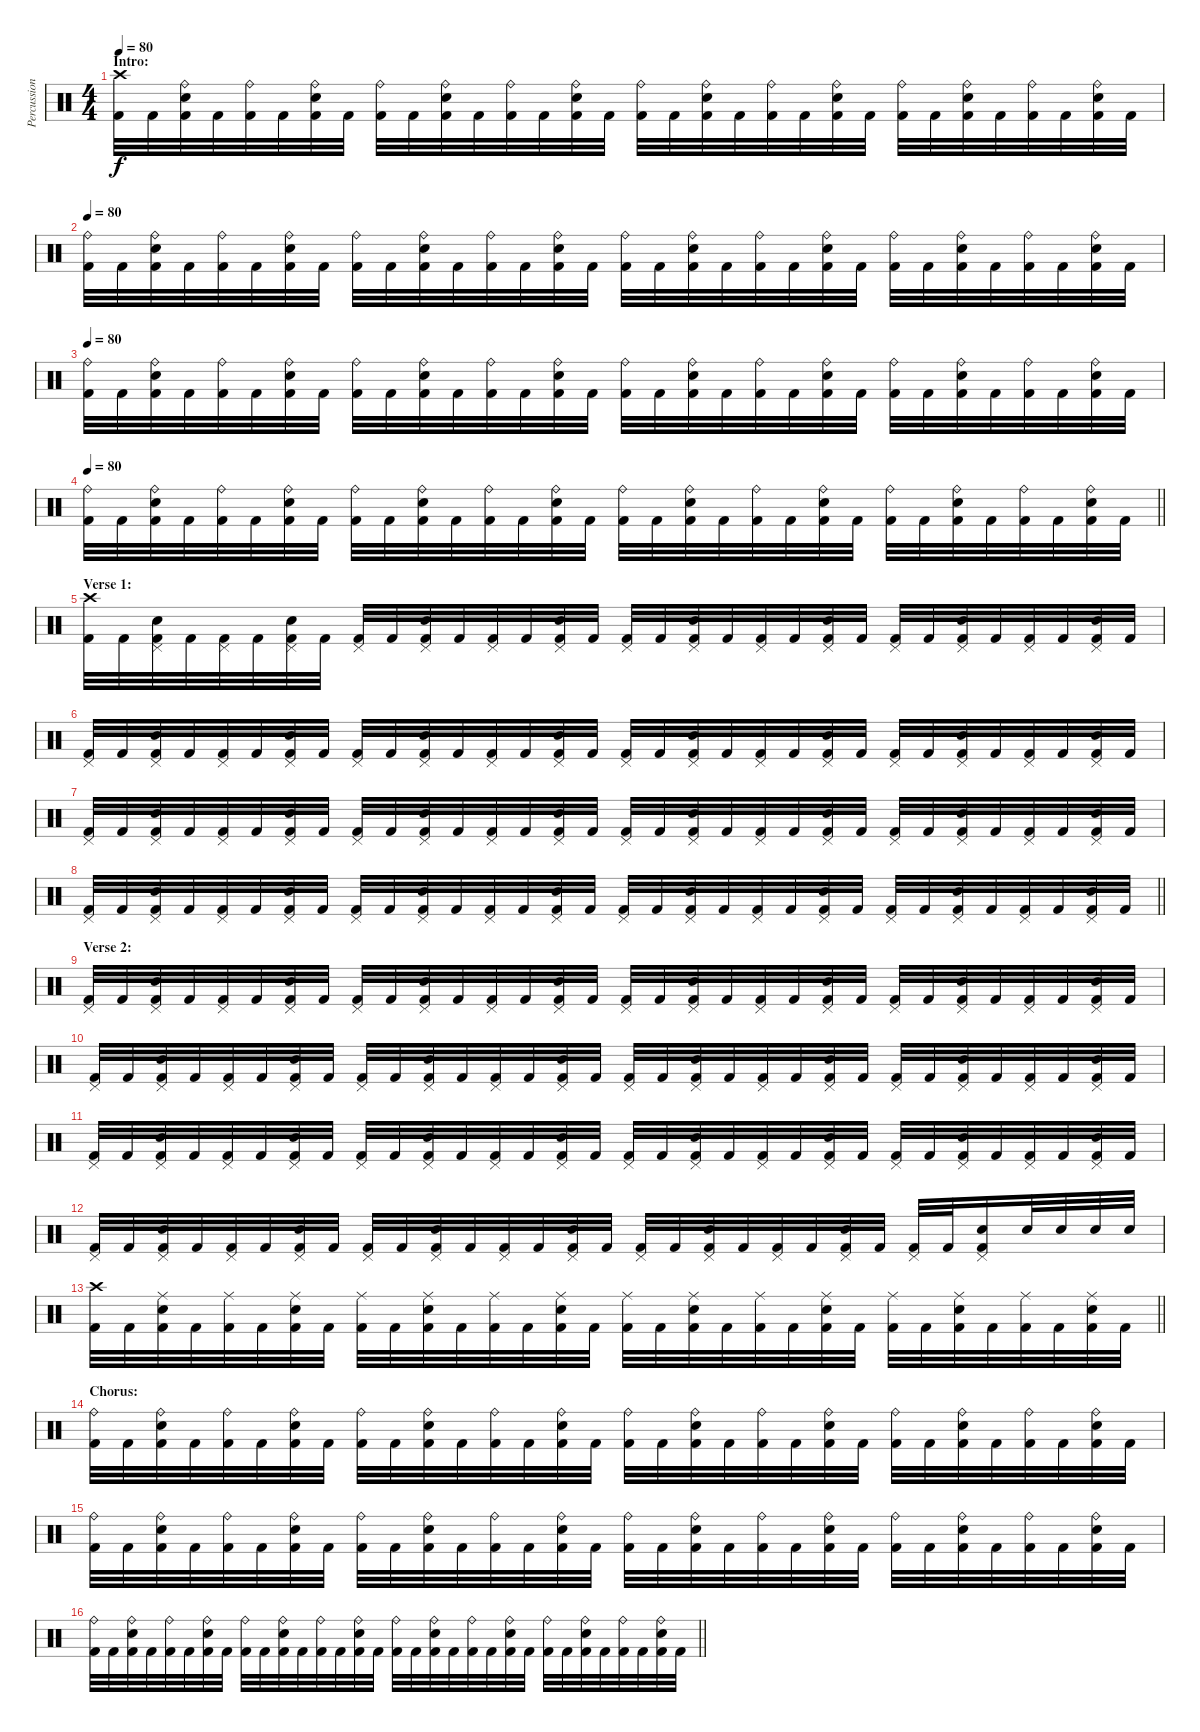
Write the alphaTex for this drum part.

\track ("Percussion" "Percussion") {instrument percussion}
\staff {score}
\articulation defaults
\ts (4 4)
\section ("" "Intro:")
\tempo 80
\clef neutral
\ks c
("Crash high (hit)" "Kick (hit) 2").32{dy f} "Kick (hit) 2".32 ("Ride (bell)" "Electric Snare (hit)" "Kick (hit) 2").32 "Kick (hit) 2".32 ("Ride (bell)" "Kick (hit) 2").32 "Kick (hit) 2".32 ("Ride (bell)" "Electric Snare (hit)" "Kick (hit) 2").32 "Kick (hit) 2".32 ("Ride (bell)" "Kick (hit) 2").32 "Kick (hit) 2".32 ("Ride (bell)" "Electric Snare (hit)" "Kick (hit) 2").32 "Kick (hit) 2".32 ("Ride (bell)" "Kick (hit) 2").32 "Kick (hit) 2".32 ("Ride (bell)" "Electric Snare (hit)" "Kick (hit) 2").32 "Kick (hit) 2".32 ("Ride (bell)" "Kick (hit) 2").32 "Kick (hit) 2".32 ("Ride (bell)" "Electric Snare (hit)" "Kick (hit) 2").32 "Kick (hit) 2".32 ("Ride (bell)" "Kick (hit) 2").32 "Kick (hit) 2".32 ("Ride (bell)" "Electric Snare (hit)" "Kick (hit) 2").32 "Kick (hit) 2".32 ("Ride (bell)" "Kick (hit) 2").32 "Kick (hit) 2".32 ("Ride (bell)" "Electric Snare (hit)" "Kick (hit) 2").32 "Kick (hit) 2".32 ("Ride (bell)" "Kick (hit) 2").32 "Kick (hit) 2".32 ("Ride (bell)" "Electric Snare (hit)" "Kick (hit) 2").32 "Kick (hit) 2".32 |
\tempo 80
("Ride (bell)" "Kick (hit) 2").32 "Kick (hit) 2".32 ("Ride (bell)" "Electric Snare (hit)" "Kick (hit) 2").32 "Kick (hit) 2".32 ("Ride (bell)" "Kick (hit) 2").32 "Kick (hit) 2".32 ("Ride (bell)" "Electric Snare (hit)" "Kick (hit) 2").32 "Kick (hit) 2".32 ("Ride (bell)" "Kick (hit) 2").32 "Kick (hit) 2".32 ("Ride (bell)" "Electric Snare (hit)" "Kick (hit) 2").32 "Kick (hit) 2".32 ("Ride (bell)" "Kick (hit) 2").32 "Kick (hit) 2".32 ("Ride (bell)" "Electric Snare (hit)" "Kick (hit) 2").32 "Kick (hit) 2".32 ("Ride (bell)" "Kick (hit) 2").32 "Kick (hit) 2".32 ("Ride (bell)" "Electric Snare (hit)" "Kick (hit) 2").32 "Kick (hit) 2".32 ("Ride (bell)" "Kick (hit) 2").32 "Kick (hit) 2".32 ("Ride (bell)" "Electric Snare (hit)" "Kick (hit) 2").32 "Kick (hit) 2".32 ("Ride (bell)" "Kick (hit) 2").32 "Kick (hit) 2".32 ("Ride (bell)" "Electric Snare (hit)" "Kick (hit) 2").32 "Kick (hit) 2".32 ("Ride (bell)" "Kick (hit) 2").32 "Kick (hit) 2".32 ("Ride (bell)" "Electric Snare (hit)" "Kick (hit) 2").32 "Kick (hit) 2".32 |
\tempo 80
("Ride (bell)" "Kick (hit) 2").32 "Kick (hit) 2".32 ("Ride (bell)" "Electric Snare (hit)" "Kick (hit) 2").32 "Kick (hit) 2".32 ("Ride (bell)" "Kick (hit) 2").32 "Kick (hit) 2".32 ("Ride (bell)" "Electric Snare (hit)" "Kick (hit) 2").32 "Kick (hit) 2".32 ("Ride (bell)" "Kick (hit) 2").32 "Kick (hit) 2".32 ("Ride (bell)" "Electric Snare (hit)" "Kick (hit) 2").32 "Kick (hit) 2".32 ("Ride (bell)" "Kick (hit) 2").32 "Kick (hit) 2".32 ("Ride (bell)" "Electric Snare (hit)" "Kick (hit) 2").32 "Kick (hit) 2".32 ("Ride (bell)" "Kick (hit) 2").32 "Kick (hit) 2".32 ("Ride (bell)" "Electric Snare (hit)" "Kick (hit) 2").32 "Kick (hit) 2".32 ("Ride (bell)" "Kick (hit) 2").32 "Kick (hit) 2".32 ("Ride (bell)" "Electric Snare (hit)" "Kick (hit) 2").32 "Kick (hit) 2".32 ("Ride (bell)" "Kick (hit) 2").32 "Kick (hit) 2".32 ("Ride (bell)" "Electric Snare (hit)" "Kick (hit) 2").32 "Kick (hit) 2".32 ("Ride (bell)" "Kick (hit) 2").32 "Kick (hit) 2".32 ("Ride (bell)" "Electric Snare (hit)" "Kick (hit) 2").32 "Kick (hit) 2".32 |
\tempo 80
\barLineRight lightlight
("Ride (bell)" "Kick (hit) 2").32 "Kick (hit) 2".32 ("Ride (bell)" "Electric Snare (hit)" "Kick (hit) 2").32 "Kick (hit) 2".32 ("Ride (bell)" "Kick (hit) 2").32 "Kick (hit) 2".32 ("Ride (bell)" "Electric Snare (hit)" "Kick (hit) 2").32 "Kick (hit) 2".32 ("Ride (bell)" "Kick (hit) 2").32 "Kick (hit) 2".32 ("Ride (bell)" "Electric Snare (hit)" "Kick (hit) 2").32 "Kick (hit) 2".32 ("Ride (bell)" "Kick (hit) 2").32 "Kick (hit) 2".32 ("Ride (bell)" "Electric Snare (hit)" "Kick (hit) 2").32 "Kick (hit) 2".32 ("Ride (bell)" "Kick (hit) 2").32 "Kick (hit) 2".32 ("Ride (bell)" "Electric Snare (hit)" "Kick (hit) 2").32 "Kick (hit) 2".32 ("Ride (bell)" "Kick (hit) 2").32 "Kick (hit) 2".32 ("Ride (bell)" "Electric Snare (hit)" "Kick (hit) 2").32 "Kick (hit) 2".32 ("Ride (bell)" "Kick (hit) 2").32 "Kick (hit) 2".32 ("Ride (bell)" "Electric Snare (hit)" "Kick (hit) 2").32 "Kick (hit) 2".32 ("Ride (bell)" "Kick (hit) 2").32 "Kick (hit) 2".32 ("Ride (bell)" "Electric Snare (hit)" "Kick (hit) 2").32 "Kick (hit) 2".32 |
\section ("" "Verse 1:")
("Crash high (hit)" "Kick (hit) 2").32 "Kick (hit) 2".32 ("Pedal Hi-Hat (hit)" "Electric Snare (hit)" "Kick (hit) 2").32 "Kick (hit) 2".32 ("Pedal Hi-Hat (hit)" "Kick (hit) 2").32 "Kick (hit) 2".32 ("Pedal Hi-Hat (hit)" "Electric Snare (hit)" "Kick (hit) 2").32 "Kick (hit) 2".32 ("Pedal Hi-Hat (hit)" "Kick (hit) 2").32 "Kick (hit) 2".32 ("Pedal Hi-Hat (hit)" "Electric Snare (hit)" "Kick (hit) 2").32 "Kick (hit) 2".32 ("Pedal Hi-Hat (hit)" "Kick (hit) 2").32 "Kick (hit) 2".32 ("Pedal Hi-Hat (hit)" "Electric Snare (hit)" "Kick (hit) 2").32 "Kick (hit) 2".32 ("Pedal Hi-Hat (hit)" "Kick (hit) 2").32 "Kick (hit) 2".32 ("Pedal Hi-Hat (hit)" "Electric Snare (hit)" "Kick (hit) 2").32 "Kick (hit) 2".32 ("Pedal Hi-Hat (hit)" "Kick (hit) 2").32 "Kick (hit) 2".32 ("Pedal Hi-Hat (hit)" "Electric Snare (hit)" "Kick (hit) 2").32 "Kick (hit) 2".32 ("Pedal Hi-Hat (hit)" "Kick (hit) 2").32 "Kick (hit) 2".32 ("Pedal Hi-Hat (hit)" "Electric Snare (hit)" "Kick (hit) 2").32 "Kick (hit) 2".32 ("Pedal Hi-Hat (hit)" "Kick (hit) 2").32 "Kick (hit) 2".32 ("Pedal Hi-Hat (hit)" "Electric Snare (hit)" "Kick (hit) 2").32 "Kick (hit) 2".32 |
("Pedal Hi-Hat (hit)" "Kick (hit) 2").32 "Kick (hit) 2".32 ("Pedal Hi-Hat (hit)" "Electric Snare (hit)" "Kick (hit) 2").32 "Kick (hit) 2".32 ("Pedal Hi-Hat (hit)" "Kick (hit) 2").32 "Kick (hit) 2".32 ("Pedal Hi-Hat (hit)" "Electric Snare (hit)" "Kick (hit) 2").32 "Kick (hit) 2".32 ("Pedal Hi-Hat (hit)" "Kick (hit) 2").32 "Kick (hit) 2".32 ("Pedal Hi-Hat (hit)" "Electric Snare (hit)" "Kick (hit) 2").32 "Kick (hit) 2".32 ("Pedal Hi-Hat (hit)" "Kick (hit) 2").32 "Kick (hit) 2".32 ("Pedal Hi-Hat (hit)" "Electric Snare (hit)" "Kick (hit) 2").32 "Kick (hit) 2".32 ("Pedal Hi-Hat (hit)" "Kick (hit) 2").32 "Kick (hit) 2".32 ("Pedal Hi-Hat (hit)" "Electric Snare (hit)" "Kick (hit) 2").32 "Kick (hit) 2".32 ("Pedal Hi-Hat (hit)" "Kick (hit) 2").32 "Kick (hit) 2".32 ("Pedal Hi-Hat (hit)" "Electric Snare (hit)" "Kick (hit) 2").32 "Kick (hit) 2".32 ("Pedal Hi-Hat (hit)" "Kick (hit) 2").32 "Kick (hit) 2".32 ("Pedal Hi-Hat (hit)" "Electric Snare (hit)" "Kick (hit) 2").32 "Kick (hit) 2".32 ("Pedal Hi-Hat (hit)" "Kick (hit) 2").32 "Kick (hit) 2".32 ("Pedal Hi-Hat (hit)" "Electric Snare (hit)" "Kick (hit) 2").32 "Kick (hit) 2".32 |
("Pedal Hi-Hat (hit)" "Kick (hit) 2").32 "Kick (hit) 2".32 ("Pedal Hi-Hat (hit)" "Electric Snare (hit)" "Kick (hit) 2").32 "Kick (hit) 2".32 ("Pedal Hi-Hat (hit)" "Kick (hit) 2").32 "Kick (hit) 2".32 ("Pedal Hi-Hat (hit)" "Electric Snare (hit)" "Kick (hit) 2").32 "Kick (hit) 2".32 ("Pedal Hi-Hat (hit)" "Kick (hit) 2").32 "Kick (hit) 2".32 ("Pedal Hi-Hat (hit)" "Electric Snare (hit)" "Kick (hit) 2").32 "Kick (hit) 2".32 ("Pedal Hi-Hat (hit)" "Kick (hit) 2").32 "Kick (hit) 2".32 ("Pedal Hi-Hat (hit)" "Electric Snare (hit)" "Kick (hit) 2").32 "Kick (hit) 2".32 ("Pedal Hi-Hat (hit)" "Kick (hit) 2").32 "Kick (hit) 2".32 ("Pedal Hi-Hat (hit)" "Electric Snare (hit)" "Kick (hit) 2").32 "Kick (hit) 2".32 ("Pedal Hi-Hat (hit)" "Kick (hit) 2").32 "Kick (hit) 2".32 ("Pedal Hi-Hat (hit)" "Electric Snare (hit)" "Kick (hit) 2").32 "Kick (hit) 2".32 ("Pedal Hi-Hat (hit)" "Kick (hit) 2").32 "Kick (hit) 2".32 ("Pedal Hi-Hat (hit)" "Electric Snare (hit)" "Kick (hit) 2").32 "Kick (hit) 2".32 ("Pedal Hi-Hat (hit)" "Kick (hit) 2").32 "Kick (hit) 2".32 ("Pedal Hi-Hat (hit)" "Electric Snare (hit)" "Kick (hit) 2").32 "Kick (hit) 2".32 |
\barLineRight lightlight
("Pedal Hi-Hat (hit)" "Kick (hit) 2").32 "Kick (hit) 2".32 ("Pedal Hi-Hat (hit)" "Electric Snare (hit)" "Kick (hit) 2").32 "Kick (hit) 2".32 ("Pedal Hi-Hat (hit)" "Kick (hit) 2").32 "Kick (hit) 2".32 ("Pedal Hi-Hat (hit)" "Electric Snare (hit)" "Kick (hit) 2").32 "Kick (hit) 2".32 ("Pedal Hi-Hat (hit)" "Kick (hit) 2").32 "Kick (hit) 2".32 ("Pedal Hi-Hat (hit)" "Electric Snare (hit)" "Kick (hit) 2").32 "Kick (hit) 2".32 ("Pedal Hi-Hat (hit)" "Kick (hit) 2").32 "Kick (hit) 2".32 ("Pedal Hi-Hat (hit)" "Electric Snare (hit)" "Kick (hit) 2").32 "Kick (hit) 2".32 ("Pedal Hi-Hat (hit)" "Kick (hit) 2").32 "Kick (hit) 2".32 ("Pedal Hi-Hat (hit)" "Electric Snare (hit)" "Kick (hit) 2").32 "Kick (hit) 2".32 ("Pedal Hi-Hat (hit)" "Kick (hit) 2").32 "Kick (hit) 2".32 ("Pedal Hi-Hat (hit)" "Electric Snare (hit)" "Kick (hit) 2").32 "Kick (hit) 2".32 ("Pedal Hi-Hat (hit)" "Kick (hit) 2").32 "Kick (hit) 2".32 ("Pedal Hi-Hat (hit)" "Electric Snare (hit)" "Kick (hit) 2").32 "Kick (hit) 2".32 ("Pedal Hi-Hat (hit)" "Kick (hit) 2").32 "Kick (hit) 2".32 ("Pedal Hi-Hat (hit)" "Electric Snare (hit)" "Kick (hit) 2").32 "Kick (hit) 2".32 |
\section ("" "Verse 2:")
("Pedal Hi-Hat (hit)" "Kick (hit) 2").32 "Kick (hit) 2".32 ("Pedal Hi-Hat (hit)" "Electric Snare (hit)" "Kick (hit) 2").32 "Kick (hit) 2".32 ("Pedal Hi-Hat (hit)" "Kick (hit) 2").32 "Kick (hit) 2".32 ("Pedal Hi-Hat (hit)" "Electric Snare (hit)" "Kick (hit) 2").32 "Kick (hit) 2".32 ("Pedal Hi-Hat (hit)" "Kick (hit) 2").32 "Kick (hit) 2".32 ("Pedal Hi-Hat (hit)" "Electric Snare (hit)" "Kick (hit) 2").32 "Kick (hit) 2".32 ("Pedal Hi-Hat (hit)" "Kick (hit) 2").32 "Kick (hit) 2".32 ("Pedal Hi-Hat (hit)" "Electric Snare (hit)" "Kick (hit) 2").32 "Kick (hit) 2".32 ("Pedal Hi-Hat (hit)" "Kick (hit) 2").32 "Kick (hit) 2".32 ("Pedal Hi-Hat (hit)" "Electric Snare (hit)" "Kick (hit) 2").32 "Kick (hit) 2".32 ("Pedal Hi-Hat (hit)" "Kick (hit) 2").32 "Kick (hit) 2".32 ("Pedal Hi-Hat (hit)" "Electric Snare (hit)" "Kick (hit) 2").32 "Kick (hit) 2".32 ("Pedal Hi-Hat (hit)" "Kick (hit) 2").32 "Kick (hit) 2".32 ("Pedal Hi-Hat (hit)" "Electric Snare (hit)" "Kick (hit) 2").32 "Kick (hit) 2".32 ("Pedal Hi-Hat (hit)" "Kick (hit) 2").32 "Kick (hit) 2".32 ("Pedal Hi-Hat (hit)" "Electric Snare (hit)" "Kick (hit) 2").32 "Kick (hit) 2".32 |
("Pedal Hi-Hat (hit)" "Kick (hit) 2").32 "Kick (hit) 2".32 ("Pedal Hi-Hat (hit)" "Electric Snare (hit)" "Kick (hit) 2").32 "Kick (hit) 2".32 ("Pedal Hi-Hat (hit)" "Kick (hit) 2").32 "Kick (hit) 2".32 ("Pedal Hi-Hat (hit)" "Electric Snare (hit)" "Kick (hit) 2").32 "Kick (hit) 2".32 ("Pedal Hi-Hat (hit)" "Kick (hit) 2").32 "Kick (hit) 2".32 ("Pedal Hi-Hat (hit)" "Electric Snare (hit)" "Kick (hit) 2").32 "Kick (hit) 2".32 ("Pedal Hi-Hat (hit)" "Kick (hit) 2").32 "Kick (hit) 2".32 ("Pedal Hi-Hat (hit)" "Electric Snare (hit)" "Kick (hit) 2").32 "Kick (hit) 2".32 ("Pedal Hi-Hat (hit)" "Kick (hit) 2").32 "Kick (hit) 2".32 ("Pedal Hi-Hat (hit)" "Electric Snare (hit)" "Kick (hit) 2").32 "Kick (hit) 2".32 ("Pedal Hi-Hat (hit)" "Kick (hit) 2").32 "Kick (hit) 2".32 ("Pedal Hi-Hat (hit)" "Electric Snare (hit)" "Kick (hit) 2").32 "Kick (hit) 2".32 ("Pedal Hi-Hat (hit)" "Kick (hit) 2").32 "Kick (hit) 2".32 ("Pedal Hi-Hat (hit)" "Electric Snare (hit)" "Kick (hit) 2").32 "Kick (hit) 2".32 ("Pedal Hi-Hat (hit)" "Kick (hit) 2").32 "Kick (hit) 2".32 ("Pedal Hi-Hat (hit)" "Electric Snare (hit)" "Kick (hit) 2").32 "Kick (hit) 2".32 |
("Pedal Hi-Hat (hit)" "Kick (hit) 2").32 "Kick (hit) 2".32 ("Pedal Hi-Hat (hit)" "Electric Snare (hit)" "Kick (hit) 2").32 "Kick (hit) 2".32 ("Pedal Hi-Hat (hit)" "Kick (hit) 2").32 "Kick (hit) 2".32 ("Pedal Hi-Hat (hit)" "Electric Snare (hit)" "Kick (hit) 2").32 "Kick (hit) 2".32 ("Pedal Hi-Hat (hit)" "Kick (hit) 2").32 "Kick (hit) 2".32 ("Pedal Hi-Hat (hit)" "Electric Snare (hit)" "Kick (hit) 2").32 "Kick (hit) 2".32 ("Pedal Hi-Hat (hit)" "Kick (hit) 2").32 "Kick (hit) 2".32 ("Pedal Hi-Hat (hit)" "Electric Snare (hit)" "Kick (hit) 2").32 "Kick (hit) 2".32 ("Pedal Hi-Hat (hit)" "Kick (hit) 2").32 "Kick (hit) 2".32 ("Pedal Hi-Hat (hit)" "Electric Snare (hit)" "Kick (hit) 2").32 "Kick (hit) 2".32 ("Pedal Hi-Hat (hit)" "Kick (hit) 2").32 "Kick (hit) 2".32 ("Pedal Hi-Hat (hit)" "Electric Snare (hit)" "Kick (hit) 2").32 "Kick (hit) 2".32 ("Pedal Hi-Hat (hit)" "Kick (hit) 2").32 "Kick (hit) 2".32 ("Pedal Hi-Hat (hit)" "Electric Snare (hit)" "Kick (hit) 2").32 "Kick (hit) 2".32 ("Pedal Hi-Hat (hit)" "Kick (hit) 2").32 "Kick (hit) 2".32 ("Pedal Hi-Hat (hit)" "Electric Snare (hit)" "Kick (hit) 2").32 "Kick (hit) 2".32 |
("Pedal Hi-Hat (hit)" "Kick (hit) 2").32 "Kick (hit) 2".32 ("Pedal Hi-Hat (hit)" "Electric Snare (hit)" "Kick (hit) 2").32 "Kick (hit) 2".32 ("Pedal Hi-Hat (hit)" "Kick (hit) 2").32 "Kick (hit) 2".32 ("Pedal Hi-Hat (hit)" "Electric Snare (hit)" "Kick (hit) 2").32 "Kick (hit) 2".32 ("Pedal Hi-Hat (hit)" "Kick (hit) 2").32 "Kick (hit) 2".32 ("Pedal Hi-Hat (hit)" "Electric Snare (hit)" "Kick (hit) 2").32 "Kick (hit) 2".32 ("Pedal Hi-Hat (hit)" "Kick (hit) 2").32 "Kick (hit) 2".32 ("Pedal Hi-Hat (hit)" "Electric Snare (hit)" "Kick (hit) 2").32 "Kick (hit) 2".32 ("Pedal Hi-Hat (hit)" "Kick (hit) 2").32 "Kick (hit) 2".32 ("Pedal Hi-Hat (hit)" "Electric Snare (hit)" "Kick (hit) 2").32 "Kick (hit) 2".32 ("Pedal Hi-Hat (hit)" "Kick (hit) 2").32 "Kick (hit) 2".32 ("Pedal Hi-Hat (hit)" "Electric Snare (hit)" "Kick (hit) 2").32 "Kick (hit) 2".32 ("Pedal Hi-Hat (hit)" "Kick (hit) 2").32 "Kick (hit) 2".32 ("Pedal Hi-Hat (hit)" "Electric Snare (hit)" "Kick (hit) 2").16 "Electric Snare (hit)".32 "Electric Snare (hit)".32 "Electric Snare (hit)".32 "Electric Snare (hit)".32 |
\barLineRight lightlight
("Crash high (hit)" "Kick (hit) 2").32 "Kick (hit) 2".32 ("Ride (middle)" "Electric Snare (hit)" "Kick (hit) 2").32 "Kick (hit) 2".32 ("Ride (middle)" "Kick (hit) 2").32 "Kick (hit) 2".32 ("Ride (middle)" "Electric Snare (hit)" "Kick (hit) 2").32 "Kick (hit) 2".32 ("Ride (middle)" "Kick (hit) 2").32 "Kick (hit) 2".32 ("Ride (middle)" "Electric Snare (hit)" "Kick (hit) 2").32 "Kick (hit) 2".32 ("Ride (middle)" "Kick (hit) 2").32 "Kick (hit) 2".32 ("Ride (middle)" "Electric Snare (hit)" "Kick (hit) 2").32 "Kick (hit) 2".32 ("Ride (middle)" "Kick (hit) 2").32 "Kick (hit) 2".32 ("Ride (middle)" "Electric Snare (hit)" "Kick (hit) 2").32 "Kick (hit) 2".32 ("Ride (middle)" "Kick (hit) 2").32 "Kick (hit) 2".32 ("Ride (middle)" "Electric Snare (hit)" "Kick (hit) 2").32 "Kick (hit) 2".32 ("Ride (middle)" "Kick (hit) 2").32 "Kick (hit) 2".32 ("Ride (middle)" "Electric Snare (hit)" "Kick (hit) 2").32 "Kick (hit) 2".32 ("Ride (middle)" "Kick (hit) 2").32 "Kick (hit) 2".32 ("Ride (middle)" "Electric Snare (hit)" "Kick (hit) 2").32 "Kick (hit) 2".32 |
\section ("" "Chorus:")
("Ride (bell)" "Kick (hit) 2").32 "Kick (hit) 2".32 ("Ride (bell)" "Electric Snare (hit)" "Kick (hit) 2").32 "Kick (hit) 2".32 ("Ride (bell)" "Kick (hit) 2").32 "Kick (hit) 2".32 ("Ride (bell)" "Electric Snare (hit)" "Kick (hit) 2").32 "Kick (hit) 2".32 ("Ride (bell)" "Kick (hit) 2").32 "Kick (hit) 2".32 ("Ride (bell)" "Electric Snare (hit)" "Kick (hit) 2").32 "Kick (hit) 2".32 ("Ride (bell)" "Kick (hit) 2").32 "Kick (hit) 2".32 ("Ride (bell)" "Electric Snare (hit)" "Kick (hit) 2").32 "Kick (hit) 2".32 ("Ride (bell)" "Kick (hit) 2").32 "Kick (hit) 2".32 ("Ride (bell)" "Electric Snare (hit)" "Kick (hit) 2").32 "Kick (hit) 2".32 ("Ride (bell)" "Kick (hit) 2").32 "Kick (hit) 2".32 ("Ride (bell)" "Electric Snare (hit)" "Kick (hit) 2").32 "Kick (hit) 2".32 ("Ride (bell)" "Kick (hit) 2").32 "Kick (hit) 2".32 ("Ride (bell)" "Electric Snare (hit)" "Kick (hit) 2").32 "Kick (hit) 2".32 ("Ride (bell)" "Kick (hit) 2").32 "Kick (hit) 2".32 ("Ride (bell)" "Electric Snare (hit)" "Kick (hit) 2").32 "Kick (hit) 2".32 |
("Ride (bell)" "Kick (hit) 2").32 "Kick (hit) 2".32 ("Ride (bell)" "Electric Snare (hit)" "Kick (hit) 2").32 "Kick (hit) 2".32 ("Ride (bell)" "Kick (hit) 2").32 "Kick (hit) 2".32 ("Ride (bell)" "Electric Snare (hit)" "Kick (hit) 2").32 "Kick (hit) 2".32 ("Ride (bell)" "Kick (hit) 2").32 "Kick (hit) 2".32 ("Ride (bell)" "Electric Snare (hit)" "Kick (hit) 2").32 "Kick (hit) 2".32 ("Ride (bell)" "Kick (hit) 2").32 "Kick (hit) 2".32 ("Ride (bell)" "Electric Snare (hit)" "Kick (hit) 2").32 "Kick (hit) 2".32 ("Ride (bell)" "Kick (hit) 2").32 "Kick (hit) 2".32 ("Ride (bell)" "Electric Snare (hit)" "Kick (hit) 2").32 "Kick (hit) 2".32 ("Ride (bell)" "Kick (hit) 2").32 "Kick (hit) 2".32 ("Ride (bell)" "Electric Snare (hit)" "Kick (hit) 2").32 "Kick (hit) 2".32 ("Ride (bell)" "Kick (hit) 2").32 "Kick (hit) 2".32 ("Ride (bell)" "Electric Snare (hit)" "Kick (hit) 2").32 "Kick (hit) 2".32 ("Ride (bell)" "Kick (hit) 2").32 "Kick (hit) 2".32 ("Ride (bell)" "Electric Snare (hit)" "Kick (hit) 2").32 "Kick (hit) 2".32 |
\barLineRight lightlight
("Ride (bell)" "Kick (hit) 2").32 "Kick (hit) 2".32 ("Ride (bell)" "Electric Snare (hit)" "Kick (hit) 2").32 "Kick (hit) 2".32 ("Ride (bell)" "Kick (hit) 2").32 "Kick (hit) 2".32 ("Ride (bell)" "Electric Snare (hit)" "Kick (hit) 2").32 "Kick (hit) 2".32 ("Ride (bell)" "Kick (hit) 2").32 "Kick (hit) 2".32 ("Ride (bell)" "Electric Snare (hit)" "Kick (hit) 2").32 "Kick (hit) 2".32 ("Ride (bell)" "Kick (hit) 2").32 "Kick (hit) 2".32 ("Ride (bell)" "Electric Snare (hit)" "Kick (hit) 2").32 "Kick (hit) 2".32 ("Ride (bell)" "Kick (hit) 2").32 "Kick (hit) 2".32 ("Ride (bell)" "Electric Snare (hit)" "Kick (hit) 2").32 "Kick (hit) 2".32 ("Ride (bell)" "Kick (hit) 2").32 "Kick (hit) 2".32 ("Ride (bell)" "Electric Snare (hit)" "Kick (hit) 2").32 "Kick (hit) 2".32 ("Ride (bell)" "Kick (hit) 2").32 "Kick (hit) 2".32 ("Ride (bell)" "Electric Snare (hit)" "Kick (hit) 2").32 "Kick (hit) 2".32 ("Ride (bell)" "Kick (hit) 2").32 "Kick (hit) 2".32 ("Ride (bell)" "Electric Snare (hit)" "Kick (hit) 2").32 "Kick (hit) 2".32
